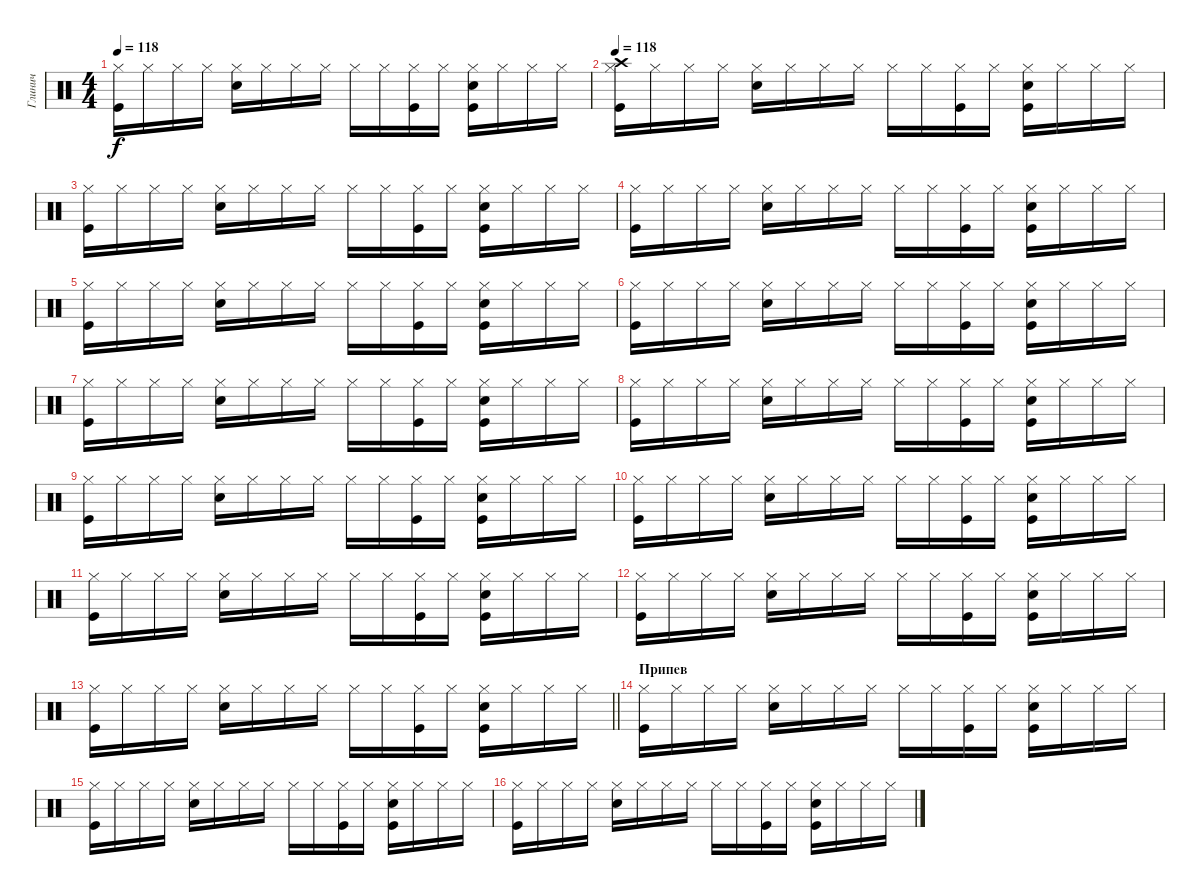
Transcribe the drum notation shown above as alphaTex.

\track ("Глинич" "Глинич") {instrument percussion}
\staff {score}
\articulation defaults
\ts (4 4)
\tempo 118
\clef neutral
\ks c
("Hi-Hat (closed)" "Kick (hit)").16{dy f} "Hi-Hat (closed)".16 "Hi-Hat (closed)".16 "Hi-Hat (closed)".16 ("Hi-Hat (closed)" "Snare (hit) 2").16 "Hi-Hat (closed)".16 "Hi-Hat (closed)".16 "Hi-Hat (closed)".16 "Hi-Hat (closed)".16 "Hi-Hat (closed)".16 ("Hi-Hat (closed)" "Kick (hit)").16 "Hi-Hat (closed)".16 ("Hi-Hat (closed)" "Snare (hit) 2" "Kick (hit)").16 "Hi-Hat (closed)".16 "Hi-Hat (closed)".16 "Hi-Hat (closed)".16 |
\tempo 118
("Hi-Hat (closed)" "Kick (hit)" "Crash high (hit)").16 "Hi-Hat (closed)".16 "Hi-Hat (closed)".16 "Hi-Hat (closed)".16 ("Hi-Hat (closed)" "Snare (hit) 2").16 "Hi-Hat (closed)".16 "Hi-Hat (closed)".16 "Hi-Hat (closed)".16 "Hi-Hat (closed)".16 "Hi-Hat (closed)".16 ("Hi-Hat (closed)" "Kick (hit)").16 "Hi-Hat (closed)".16 ("Hi-Hat (closed)" "Snare (hit) 2" "Kick (hit)").16 "Hi-Hat (closed)".16 "Hi-Hat (closed)".16 "Hi-Hat (closed)".16 |
("Hi-Hat (closed)" "Kick (hit)").16 "Hi-Hat (closed)".16 "Hi-Hat (closed)".16 "Hi-Hat (closed)".16 ("Hi-Hat (closed)" "Snare (hit) 2").16 "Hi-Hat (closed)".16 "Hi-Hat (closed)".16 "Hi-Hat (closed)".16 "Hi-Hat (closed)".16 "Hi-Hat (closed)".16 ("Hi-Hat (closed)" "Kick (hit)").16 "Hi-Hat (closed)".16 ("Hi-Hat (closed)" "Snare (hit) 2" "Kick (hit)").16 "Hi-Hat (closed)".16 "Hi-Hat (closed)".16 "Hi-Hat (closed)".16 |
("Hi-Hat (closed)" "Kick (hit)").16 "Hi-Hat (closed)".16 "Hi-Hat (closed)".16 "Hi-Hat (closed)".16 ("Hi-Hat (closed)" "Snare (hit) 2").16 "Hi-Hat (closed)".16 "Hi-Hat (closed)".16 "Hi-Hat (closed)".16 "Hi-Hat (closed)".16 "Hi-Hat (closed)".16 ("Hi-Hat (closed)" "Kick (hit)").16 "Hi-Hat (closed)".16 ("Hi-Hat (closed)" "Snare (hit) 2" "Kick (hit)").16 "Hi-Hat (closed)".16 "Hi-Hat (closed)".16 "Hi-Hat (closed)".16 |
("Hi-Hat (closed)" "Kick (hit)").16 "Hi-Hat (closed)".16 "Hi-Hat (closed)".16 "Hi-Hat (closed)".16 ("Hi-Hat (closed)" "Snare (hit) 2").16 "Hi-Hat (closed)".16 "Hi-Hat (closed)".16 "Hi-Hat (closed)".16 "Hi-Hat (closed)".16 "Hi-Hat (closed)".16 ("Hi-Hat (closed)" "Kick (hit)").16 "Hi-Hat (closed)".16 ("Hi-Hat (closed)" "Snare (hit) 2" "Kick (hit)").16 "Hi-Hat (closed)".16 "Hi-Hat (closed)".16 "Hi-Hat (closed)".16 |
("Hi-Hat (closed)" "Kick (hit)").16 "Hi-Hat (closed)".16 "Hi-Hat (closed)".16 "Hi-Hat (closed)".16 ("Hi-Hat (closed)" "Snare (hit) 2").16 "Hi-Hat (closed)".16 "Hi-Hat (closed)".16 "Hi-Hat (closed)".16 "Hi-Hat (closed)".16 "Hi-Hat (closed)".16 ("Hi-Hat (closed)" "Kick (hit)").16 "Hi-Hat (closed)".16 ("Hi-Hat (closed)" "Snare (hit) 2" "Kick (hit)").16 "Hi-Hat (closed)".16 "Hi-Hat (closed)".16 "Hi-Hat (closed)".16 |
("Hi-Hat (closed)" "Kick (hit)").16 "Hi-Hat (closed)".16 "Hi-Hat (closed)".16 "Hi-Hat (closed)".16 ("Hi-Hat (closed)" "Snare (hit) 2").16 "Hi-Hat (closed)".16 "Hi-Hat (closed)".16 "Hi-Hat (closed)".16 "Hi-Hat (closed)".16 "Hi-Hat (closed)".16 ("Hi-Hat (closed)" "Kick (hit)").16 "Hi-Hat (closed)".16 ("Hi-Hat (closed)" "Snare (hit) 2" "Kick (hit)").16 "Hi-Hat (closed)".16 "Hi-Hat (closed)".16 "Hi-Hat (closed)".16 |
("Hi-Hat (closed)" "Kick (hit)").16 "Hi-Hat (closed)".16 "Hi-Hat (closed)".16 "Hi-Hat (closed)".16 ("Hi-Hat (closed)" "Snare (hit) 2").16 "Hi-Hat (closed)".16 "Hi-Hat (closed)".16 "Hi-Hat (closed)".16 "Hi-Hat (closed)".16 "Hi-Hat (closed)".16 ("Hi-Hat (closed)" "Kick (hit)").16 "Hi-Hat (closed)".16 ("Hi-Hat (closed)" "Snare (hit) 2" "Kick (hit)").16 "Hi-Hat (closed)".16 "Hi-Hat (closed)".16 "Hi-Hat (closed)".16 |
("Hi-Hat (closed)" "Kick (hit)").16 "Hi-Hat (closed)".16 "Hi-Hat (closed)".16 "Hi-Hat (closed)".16 ("Hi-Hat (closed)" "Snare (hit) 2").16 "Hi-Hat (closed)".16 "Hi-Hat (closed)".16 "Hi-Hat (closed)".16 "Hi-Hat (closed)".16 "Hi-Hat (closed)".16 ("Hi-Hat (closed)" "Kick (hit)").16 "Hi-Hat (closed)".16 ("Hi-Hat (closed)" "Snare (hit) 2" "Kick (hit)").16 "Hi-Hat (closed)".16 "Hi-Hat (closed)".16 "Hi-Hat (closed)".16 |
("Hi-Hat (closed)" "Kick (hit)").16 "Hi-Hat (closed)".16 "Hi-Hat (closed)".16 "Hi-Hat (closed)".16 ("Hi-Hat (closed)" "Snare (hit) 2").16 "Hi-Hat (closed)".16 "Hi-Hat (closed)".16 "Hi-Hat (closed)".16 "Hi-Hat (closed)".16 "Hi-Hat (closed)".16 ("Hi-Hat (closed)" "Kick (hit)").16 "Hi-Hat (closed)".16 ("Hi-Hat (closed)" "Snare (hit) 2" "Kick (hit)").16 "Hi-Hat (closed)".16 "Hi-Hat (closed)".16 "Hi-Hat (closed)".16 |
("Hi-Hat (closed)" "Kick (hit)").16 "Hi-Hat (closed)".16 "Hi-Hat (closed)".16 "Hi-Hat (closed)".16 ("Hi-Hat (closed)" "Snare (hit) 2").16 "Hi-Hat (closed)".16 "Hi-Hat (closed)".16 "Hi-Hat (closed)".16 "Hi-Hat (closed)".16 "Hi-Hat (closed)".16 ("Hi-Hat (closed)" "Kick (hit)").16 "Hi-Hat (closed)".16 ("Hi-Hat (closed)" "Snare (hit) 2" "Kick (hit)").16 "Hi-Hat (closed)".16 "Hi-Hat (closed)".16 "Hi-Hat (closed)".16 |
("Hi-Hat (closed)" "Kick (hit)").16 "Hi-Hat (closed)".16 "Hi-Hat (closed)".16 "Hi-Hat (closed)".16 ("Hi-Hat (closed)" "Snare (hit) 2").16 "Hi-Hat (closed)".16 "Hi-Hat (closed)".16 "Hi-Hat (closed)".16 "Hi-Hat (closed)".16 "Hi-Hat (closed)".16 ("Hi-Hat (closed)" "Kick (hit)").16 "Hi-Hat (closed)".16 ("Hi-Hat (closed)" "Snare (hit) 2" "Kick (hit)").16 "Hi-Hat (closed)".16 "Hi-Hat (closed)".16 "Hi-Hat (closed)".16 |
\barLineRight lightlight
("Hi-Hat (closed)" "Kick (hit)").16 "Hi-Hat (closed)".16 "Hi-Hat (closed)".16 "Hi-Hat (closed)".16 ("Hi-Hat (closed)" "Snare (hit) 2").16 "Hi-Hat (closed)".16 "Hi-Hat (closed)".16 "Hi-Hat (closed)".16 "Hi-Hat (closed)".16 "Hi-Hat (closed)".16 ("Hi-Hat (closed)" "Kick (hit)").16 "Hi-Hat (closed)".16 ("Hi-Hat (closed)" "Snare (hit) 2" "Kick (hit)").16 "Hi-Hat (closed)".16 "Hi-Hat (closed)".16 "Hi-Hat (closed)".16 |
\section ("" "Припев")
("Hi-Hat (closed)" "Kick (hit)").16 "Hi-Hat (closed)".16 "Hi-Hat (closed)".16 "Hi-Hat (closed)".16 ("Hi-Hat (closed)" "Snare (hit) 2").16 "Hi-Hat (closed)".16 "Hi-Hat (closed)".16 "Hi-Hat (closed)".16 "Hi-Hat (closed)".16 "Hi-Hat (closed)".16 ("Hi-Hat (closed)" "Kick (hit)").16 "Hi-Hat (closed)".16 ("Hi-Hat (closed)" "Snare (hit) 2" "Kick (hit)").16 "Hi-Hat (closed)".16 "Hi-Hat (closed)".16 "Hi-Hat (closed)".16 |
("Hi-Hat (closed)" "Kick (hit)").16 "Hi-Hat (closed)".16 "Hi-Hat (closed)".16 "Hi-Hat (closed)".16 ("Hi-Hat (closed)" "Snare (hit) 2").16 "Hi-Hat (closed)".16 "Hi-Hat (closed)".16 "Hi-Hat (closed)".16 "Hi-Hat (closed)".16 "Hi-Hat (closed)".16 ("Hi-Hat (closed)" "Kick (hit)").16 "Hi-Hat (closed)".16 ("Hi-Hat (closed)" "Snare (hit) 2" "Kick (hit)").16 "Hi-Hat (closed)".16 "Hi-Hat (closed)".16 "Hi-Hat (closed)".16 |
("Hi-Hat (closed)" "Kick (hit)").16 "Hi-Hat (closed)".16 "Hi-Hat (closed)".16 "Hi-Hat (closed)".16 ("Hi-Hat (closed)" "Snare (hit) 2").16 "Hi-Hat (closed)".16 "Hi-Hat (closed)".16 "Hi-Hat (closed)".16 "Hi-Hat (closed)".16 "Hi-Hat (closed)".16 ("Hi-Hat (closed)" "Kick (hit)").16 "Hi-Hat (closed)".16 ("Hi-Hat (closed)" "Snare (hit) 2" "Kick (hit)").16 "Hi-Hat (closed)".16 "Hi-Hat (closed)".16 "Hi-Hat (closed)".16
